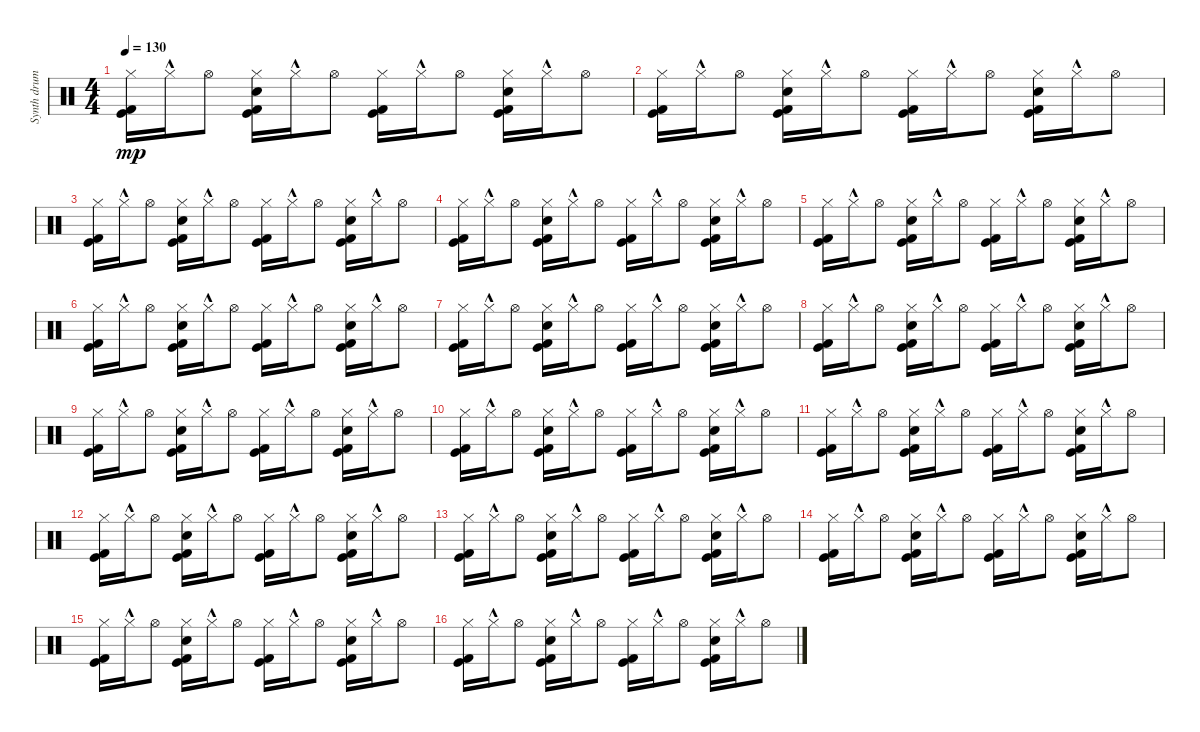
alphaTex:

\track ("Synth drums" "Synth drum") {instrument percussion}
\staff {score}
\articulation defaults
\ts (4 4)
\tempo 130
\clef neutral
\ks c
("Kick (hit)" "Kick (hit) 2" "Hi-Hat (closed)").16{dy mp} "Hi-Hat (closed)"{hac}.16 "Hi-Hat (open)".8 ("Hand Clap (hit)" "Kick (hit)" "Kick (hit) 2" "Hi-Hat (closed)").16 "Hi-Hat (closed)"{hac}.16 "Hi-Hat (open)".8 ("Kick (hit)" "Kick (hit) 2" "Hi-Hat (closed)").16 "Hi-Hat (closed)"{hac}.16 "Hi-Hat (open)".8 ("Hand Clap (hit)" "Kick (hit)" "Kick (hit) 2" "Hi-Hat (closed)").16 "Hi-Hat (closed)"{hac}.16 "Hi-Hat (open)".8 |
("Kick (hit)" "Kick (hit) 2" "Hi-Hat (closed)").16 "Hi-Hat (closed)"{hac}.16 "Hi-Hat (open)".8 ("Hand Clap (hit)" "Kick (hit)" "Kick (hit) 2" "Hi-Hat (closed)").16 "Hi-Hat (closed)"{hac}.16 "Hi-Hat (open)".8 ("Kick (hit)" "Kick (hit) 2" "Hi-Hat (closed)").16 "Hi-Hat (closed)"{hac}.16 "Hi-Hat (open)".8 ("Hand Clap (hit)" "Kick (hit)" "Kick (hit) 2" "Hi-Hat (closed)").16 "Hi-Hat (closed)"{hac}.16 "Hi-Hat (open)".8 |
("Kick (hit)" "Kick (hit) 2" "Hi-Hat (closed)").16 "Hi-Hat (closed)"{hac}.16 "Hi-Hat (open)".8 ("Hand Clap (hit)" "Kick (hit)" "Kick (hit) 2" "Hi-Hat (closed)").16 "Hi-Hat (closed)"{hac}.16 "Hi-Hat (open)".8 ("Kick (hit)" "Kick (hit) 2" "Hi-Hat (closed)").16 "Hi-Hat (closed)"{hac}.16 "Hi-Hat (open)".8 ("Hand Clap (hit)" "Kick (hit)" "Kick (hit) 2" "Hi-Hat (closed)").16 "Hi-Hat (closed)"{hac}.16 "Hi-Hat (open)".8 |
("Kick (hit)" "Kick (hit) 2" "Hi-Hat (closed)").16 "Hi-Hat (closed)"{hac}.16 "Hi-Hat (open)".8 ("Hand Clap (hit)" "Kick (hit)" "Kick (hit) 2" "Hi-Hat (closed)").16 "Hi-Hat (closed)"{hac}.16 "Hi-Hat (open)".8 ("Kick (hit)" "Kick (hit) 2" "Hi-Hat (closed)").16 "Hi-Hat (closed)"{hac}.16 "Hi-Hat (open)".8 ("Hand Clap (hit)" "Kick (hit)" "Kick (hit) 2" "Hi-Hat (closed)").16 "Hi-Hat (closed)"{hac}.16 "Hi-Hat (open)".8 |
("Kick (hit)" "Kick (hit) 2" "Hi-Hat (closed)").16 "Hi-Hat (closed)"{hac}.16 "Hi-Hat (open)".8 ("Hand Clap (hit)" "Kick (hit)" "Kick (hit) 2" "Hi-Hat (closed)").16 "Hi-Hat (closed)"{hac}.16 "Hi-Hat (open)".8 ("Kick (hit)" "Kick (hit) 2" "Hi-Hat (closed)").16 "Hi-Hat (closed)"{hac}.16 "Hi-Hat (open)".8 ("Hand Clap (hit)" "Kick (hit)" "Kick (hit) 2" "Hi-Hat (closed)").16 "Hi-Hat (closed)"{hac}.16 "Hi-Hat (open)".8 |
("Kick (hit)" "Kick (hit) 2" "Hi-Hat (closed)").16 "Hi-Hat (closed)"{hac}.16 "Hi-Hat (open)".8 ("Hand Clap (hit)" "Kick (hit)" "Kick (hit) 2" "Hi-Hat (closed)").16 "Hi-Hat (closed)"{hac}.16 "Hi-Hat (open)".8 ("Kick (hit)" "Kick (hit) 2" "Hi-Hat (closed)").16 "Hi-Hat (closed)"{hac}.16 "Hi-Hat (open)".8 ("Hand Clap (hit)" "Kick (hit)" "Kick (hit) 2" "Hi-Hat (closed)").16 "Hi-Hat (closed)"{hac}.16 "Hi-Hat (open)".8 |
("Kick (hit)" "Kick (hit) 2" "Hi-Hat (closed)").16 "Hi-Hat (closed)"{hac}.16 "Hi-Hat (open)".8 ("Hand Clap (hit)" "Kick (hit)" "Kick (hit) 2" "Hi-Hat (closed)").16 "Hi-Hat (closed)"{hac}.16 "Hi-Hat (open)".8 ("Kick (hit)" "Kick (hit) 2" "Hi-Hat (closed)").16 "Hi-Hat (closed)"{hac}.16 "Hi-Hat (open)".8 ("Hand Clap (hit)" "Kick (hit)" "Kick (hit) 2" "Hi-Hat (closed)").16 "Hi-Hat (closed)"{hac}.16 "Hi-Hat (open)".8 |
("Kick (hit)" "Kick (hit) 2" "Hi-Hat (closed)").16 "Hi-Hat (closed)"{hac}.16 "Hi-Hat (open)".8 ("Hand Clap (hit)" "Kick (hit)" "Kick (hit) 2" "Hi-Hat (closed)").16 "Hi-Hat (closed)"{hac}.16 "Hi-Hat (open)".8 ("Kick (hit)" "Kick (hit) 2" "Hi-Hat (closed)").16 "Hi-Hat (closed)"{hac}.16 "Hi-Hat (open)".8 ("Hand Clap (hit)" "Kick (hit)" "Kick (hit) 2" "Hi-Hat (closed)").16 "Hi-Hat (closed)"{hac}.16 "Hi-Hat (open)".8 |
("Kick (hit)" "Kick (hit) 2" "Hi-Hat (closed)").16 "Hi-Hat (closed)"{hac}.16 "Hi-Hat (open)".8 ("Hand Clap (hit)" "Kick (hit)" "Kick (hit) 2" "Hi-Hat (closed)").16 "Hi-Hat (closed)"{hac}.16 "Hi-Hat (open)".8 ("Kick (hit)" "Kick (hit) 2" "Hi-Hat (closed)").16 "Hi-Hat (closed)"{hac}.16 "Hi-Hat (open)".8 ("Hand Clap (hit)" "Kick (hit)" "Kick (hit) 2" "Hi-Hat (closed)").16 "Hi-Hat (closed)"{hac}.16 "Hi-Hat (open)".8 |
("Kick (hit)" "Kick (hit) 2" "Hi-Hat (closed)").16 "Hi-Hat (closed)"{hac}.16 "Hi-Hat (open)".8 ("Hand Clap (hit)" "Kick (hit)" "Kick (hit) 2" "Hi-Hat (closed)").16 "Hi-Hat (closed)"{hac}.16 "Hi-Hat (open)".8 ("Kick (hit)" "Kick (hit) 2" "Hi-Hat (closed)").16 "Hi-Hat (closed)"{hac}.16 "Hi-Hat (open)".8 ("Hand Clap (hit)" "Kick (hit)" "Kick (hit) 2" "Hi-Hat (closed)").16 "Hi-Hat (closed)"{hac}.16 "Hi-Hat (open)".8 |
("Kick (hit)" "Kick (hit) 2" "Hi-Hat (closed)").16 "Hi-Hat (closed)"{hac}.16 "Hi-Hat (open)".8 ("Hand Clap (hit)" "Kick (hit)" "Kick (hit) 2" "Hi-Hat (closed)").16 "Hi-Hat (closed)"{hac}.16 "Hi-Hat (open)".8 ("Kick (hit)" "Kick (hit) 2" "Hi-Hat (closed)").16 "Hi-Hat (closed)"{hac}.16 "Hi-Hat (open)".8 ("Hand Clap (hit)" "Kick (hit)" "Kick (hit) 2" "Hi-Hat (closed)").16 "Hi-Hat (closed)"{hac}.16 "Hi-Hat (open)".8 |
("Kick (hit)" "Kick (hit) 2" "Hi-Hat (closed)").16 "Hi-Hat (closed)"{hac}.16 "Hi-Hat (open)".8 ("Hand Clap (hit)" "Kick (hit)" "Kick (hit) 2" "Hi-Hat (closed)").16 "Hi-Hat (closed)"{hac}.16 "Hi-Hat (open)".8 ("Kick (hit)" "Kick (hit) 2" "Hi-Hat (closed)").16 "Hi-Hat (closed)"{hac}.16 "Hi-Hat (open)".8 ("Hand Clap (hit)" "Kick (hit)" "Kick (hit) 2" "Hi-Hat (closed)").16 "Hi-Hat (closed)"{hac}.16 "Hi-Hat (open)".8 |
("Kick (hit)" "Kick (hit) 2" "Hi-Hat (closed)").16 "Hi-Hat (closed)"{hac}.16 "Hi-Hat (open)".8 ("Hand Clap (hit)" "Kick (hit)" "Kick (hit) 2" "Hi-Hat (closed)").16 "Hi-Hat (closed)"{hac}.16 "Hi-Hat (open)".8 ("Kick (hit)" "Kick (hit) 2" "Hi-Hat (closed)").16 "Hi-Hat (closed)"{hac}.16 "Hi-Hat (open)".8 ("Hand Clap (hit)" "Kick (hit)" "Kick (hit) 2" "Hi-Hat (closed)").16 "Hi-Hat (closed)"{hac}.16 "Hi-Hat (open)".8 |
("Kick (hit)" "Kick (hit) 2" "Hi-Hat (closed)").16 "Hi-Hat (closed)"{hac}.16 "Hi-Hat (open)".8 ("Hand Clap (hit)" "Kick (hit)" "Kick (hit) 2" "Hi-Hat (closed)").16 "Hi-Hat (closed)"{hac}.16 "Hi-Hat (open)".8 ("Kick (hit)" "Kick (hit) 2" "Hi-Hat (closed)").16 "Hi-Hat (closed)"{hac}.16 "Hi-Hat (open)".8 ("Hand Clap (hit)" "Kick (hit)" "Kick (hit) 2" "Hi-Hat (closed)").16 "Hi-Hat (closed)"{hac}.16 "Hi-Hat (open)".8 |
("Kick (hit)" "Kick (hit) 2" "Hi-Hat (closed)").16 "Hi-Hat (closed)"{hac}.16 "Hi-Hat (open)".8 ("Hand Clap (hit)" "Kick (hit)" "Kick (hit) 2" "Hi-Hat (closed)").16 "Hi-Hat (closed)"{hac}.16 "Hi-Hat (open)".8 ("Kick (hit)" "Kick (hit) 2" "Hi-Hat (closed)").16 "Hi-Hat (closed)"{hac}.16 "Hi-Hat (open)".8 ("Hand Clap (hit)" "Kick (hit)" "Kick (hit) 2" "Hi-Hat (closed)").16 "Hi-Hat (closed)"{hac}.16 "Hi-Hat (open)".8 |
("Kick (hit)" "Kick (hit) 2" "Hi-Hat (closed)").16 "Hi-Hat (closed)"{hac}.16 "Hi-Hat (open)".8 ("Hand Clap (hit)" "Kick (hit)" "Kick (hit) 2" "Hi-Hat (closed)").16 "Hi-Hat (closed)"{hac}.16 "Hi-Hat (open)".8 ("Kick (hit)" "Kick (hit) 2" "Hi-Hat (closed)").16 "Hi-Hat (closed)"{hac}.16 "Hi-Hat (open)".8 ("Hand Clap (hit)" "Kick (hit)" "Kick (hit) 2" "Hi-Hat (closed)").16 "Hi-Hat (closed)"{hac}.16 "Hi-Hat (open)".8
